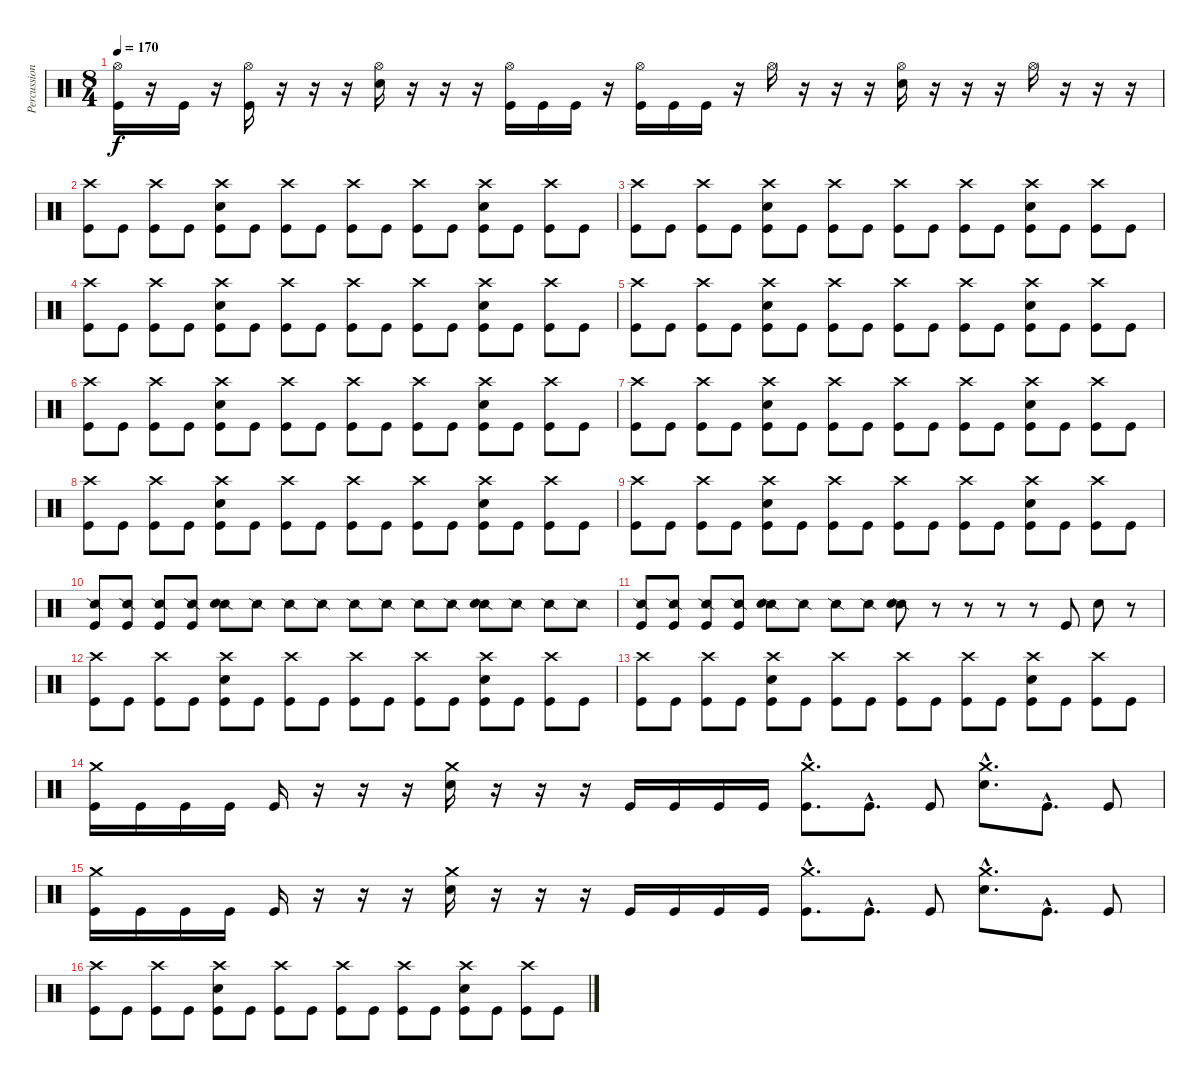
\track ("Percussion" "Percussion") {instrument percussion}
\staff {score}
\articulation defaults
\ts (8 4)
\tempo 170
\clef neutral
\ks c
("Hi-Hat (open)" "Kick (hit)").16{dy f} r.16 "Kick (hit)".16 r.16 ("Hi-Hat (open)" "Kick (hit)").16 r.16 r.16 r.16 ("Hi-Hat (open)" "Snare (hit) 2").16 r.16 r.16 r.16 ("Hi-Hat (open)" "Kick (hit)").16 "Kick (hit)".16 "Kick (hit)".16 r.16 ("Hi-Hat (open)" "Kick (hit)").16 "Kick (hit)".16 "Kick (hit)".16 r.16 "Hi-Hat (open)".16 r.16 r.16 r.16 ("Hi-Hat (open)" "Snare (hit) 2").16 r.16 r.16 r.16 "Hi-Hat (open)".16 r.16 r.16 r.16 |
("Crash high (hit)" "Kick (hit)").8 "Kick (hit)".8 ("Crash high (hit)" "Kick (hit)").8 "Kick (hit)".8 ("Crash high (hit)" "Snare (hit) 2" "Kick (hit)").8 "Kick (hit)".8 ("Crash high (hit)" "Kick (hit)").8 "Kick (hit)".8 ("Crash high (hit)" "Kick (hit)").8 "Kick (hit)".8 ("Crash high (hit)" "Kick (hit)").8 "Kick (hit)".8 ("Crash high (hit)" "Snare (hit) 2" "Kick (hit)").8 "Kick (hit)".8 ("Crash high (hit)" "Kick (hit)").8 "Kick (hit)".8 |
("Crash high (hit)" "Kick (hit)").8 "Kick (hit)".8 ("Crash high (hit)" "Kick (hit)").8 "Kick (hit)".8 ("Crash high (hit)" "Snare (hit) 2" "Kick (hit)").8 "Kick (hit)".8 ("Crash high (hit)" "Kick (hit)").8 "Kick (hit)".8 ("Crash high (hit)" "Kick (hit)").8 "Kick (hit)".8 ("Crash high (hit)" "Kick (hit)").8 "Kick (hit)".8 ("Crash high (hit)" "Snare (hit) 2" "Kick (hit)").8 "Kick (hit)".8 ("Crash high (hit)" "Kick (hit)").8 "Kick (hit)".8 |
("Crash high (hit)" "Kick (hit)").8 "Kick (hit)".8 ("Crash high (hit)" "Kick (hit)").8 "Kick (hit)".8 ("Crash high (hit)" "Snare (hit) 2" "Kick (hit)").8 "Kick (hit)".8 ("Crash high (hit)" "Kick (hit)").8 "Kick (hit)".8 ("Crash high (hit)" "Kick (hit)").8 "Kick (hit)".8 ("Crash high (hit)" "Kick (hit)").8 "Kick (hit)".8 ("Crash high (hit)" "Snare (hit) 2" "Kick (hit)").8 "Kick (hit)".8 ("Crash high (hit)" "Kick (hit)").8 "Kick (hit)".8 |
("Crash high (hit)" "Kick (hit)").8 "Kick (hit)".8 ("Crash high (hit)" "Kick (hit)").8 "Kick (hit)".8 ("Crash high (hit)" "Snare (hit) 2" "Kick (hit)").8 "Kick (hit)".8 ("Crash high (hit)" "Kick (hit)").8 "Kick (hit)".8 ("Crash high (hit)" "Kick (hit)").8 "Kick (hit)".8 ("Crash high (hit)" "Kick (hit)").8 "Kick (hit)".8 ("Crash high (hit)" "Snare (hit) 2" "Kick (hit)").8 "Kick (hit)".8 ("Crash high (hit)" "Kick (hit)").8 "Kick (hit)".8 |
("Crash high (hit)" "Kick (hit)").8 "Kick (hit)".8 ("Crash high (hit)" "Kick (hit)").8 "Kick (hit)".8 ("Crash high (hit)" "Snare (hit) 2" "Kick (hit)").8 "Kick (hit)".8 ("Crash high (hit)" "Kick (hit)").8 "Kick (hit)".8 ("Crash high (hit)" "Kick (hit)").8 "Kick (hit)".8 ("Crash high (hit)" "Kick (hit)").8 "Kick (hit)".8 ("Crash high (hit)" "Snare (hit) 2" "Kick (hit)").8 "Kick (hit)".8 ("Crash high (hit)" "Kick (hit)").8 "Kick (hit)".8 |
("Crash high (hit)" "Kick (hit)").8 "Kick (hit)".8 ("Crash high (hit)" "Kick (hit)").8 "Kick (hit)".8 ("Crash high (hit)" "Snare (hit) 2" "Kick (hit)").8 "Kick (hit)".8 ("Crash high (hit)" "Kick (hit)").8 "Kick (hit)".8 ("Crash high (hit)" "Kick (hit)").8 "Kick (hit)".8 ("Crash high (hit)" "Kick (hit)").8 "Kick (hit)".8 ("Crash high (hit)" "Snare (hit) 2" "Kick (hit)").8 "Kick (hit)".8 ("Crash high (hit)" "Kick (hit)").8 "Kick (hit)".8 |
("Crash high (hit)" "Kick (hit)").8 "Kick (hit)".8 ("Crash high (hit)" "Kick (hit)").8 "Kick (hit)".8 ("Crash high (hit)" "Snare (hit) 2" "Kick (hit)").8 "Kick (hit)".8 ("Crash high (hit)" "Kick (hit)").8 "Kick (hit)".8 ("Crash high (hit)" "Kick (hit)").8 "Kick (hit)".8 ("Crash high (hit)" "Kick (hit)").8 "Kick (hit)".8 ("Crash high (hit)" "Snare (hit) 2" "Kick (hit)").8 "Kick (hit)".8 ("Crash high (hit)" "Kick (hit)").8 "Kick (hit)".8 |
("Crash high (hit)" "Kick (hit)").8 "Kick (hit)".8 ("Crash high (hit)" "Kick (hit)").8 "Kick (hit)".8 ("Crash high (hit)" "Snare (hit) 2" "Kick (hit)").8 "Kick (hit)".8 ("Crash high (hit)" "Kick (hit)").8 "Kick (hit)".8 ("Crash high (hit)" "Kick (hit)").8 "Kick (hit)".8 ("Crash high (hit)" "Kick (hit)").8 "Kick (hit)".8 ("Crash high (hit)" "Snare (hit) 2" "Kick (hit)").8 "Kick (hit)".8 ("Crash high (hit)" "Kick (hit)").8 "Kick (hit)".8 |
("Snare (side stick) 2" "Kick (hit)").8 ("Snare (side stick) 2" "Kick (hit)").8 ("Snare (side stick) 2" "Kick (hit)").8 ("Snare (side stick) 2" "Kick (hit)").8 ("Snare (side stick) 2" "Snare (hit) 2").8 "Snare (side stick) 2".8 "Snare (side stick) 2".8 "Snare (side stick) 2".8 "Snare (side stick) 2".8 "Snare (side stick) 2".8 "Snare (side stick) 2".8 "Snare (side stick) 2".8 ("Snare (side stick) 2" "Snare (hit) 2").8 "Snare (side stick) 2".8 "Snare (side stick) 2".8 "Snare (side stick) 2".8 |
("Snare (side stick) 2" "Kick (hit)").8 ("Snare (side stick) 2" "Kick (hit)").8 ("Snare (side stick) 2" "Kick (hit)").8 ("Snare (side stick) 2" "Kick (hit)").8 ("Snare (side stick) 2" "Snare (hit) 2").8 "Snare (side stick) 2".8 "Snare (side stick) 2".8 "Snare (side stick) 2".8 ("Snare (side stick) 2" "Snare (hit) 2").8 r.8 r.8 r.8 r.8 "Kick (hit)".8 "Snare (hit) 2".8 r.8 |
("Crash high (hit)" "Kick (hit)").8 "Kick (hit)".8 ("Crash high (hit)" "Kick (hit)").8 "Kick (hit)".8 ("Crash high (hit)" "Snare (hit) 2" "Kick (hit)").8 "Kick (hit)".8 ("Crash high (hit)" "Kick (hit)").8 "Kick (hit)".8 ("Crash high (hit)" "Kick (hit)").8 "Kick (hit)".8 ("Crash high (hit)" "Kick (hit)").8 "Kick (hit)".8 ("Crash high (hit)" "Snare (hit) 2" "Kick (hit)").8 "Kick (hit)".8 ("Crash high (hit)" "Kick (hit)").8 "Kick (hit)".8 |
("Crash high (hit)" "Kick (hit)").8 "Kick (hit)".8 ("Crash high (hit)" "Kick (hit)").8 "Kick (hit)".8 ("Crash high (hit)" "Snare (hit) 2" "Kick (hit)").8 "Kick (hit)".8 ("Crash high (hit)" "Kick (hit)").8 "Kick (hit)".8 ("Crash high (hit)" "Kick (hit)").8 "Kick (hit)".8 ("Crash high (hit)" "Kick (hit)").8 "Kick (hit)".8 ("Crash high (hit)" "Snare (hit) 2" "Kick (hit)").8 "Kick (hit)".8 ("Crash high (hit)" "Kick (hit)").8 "Kick (hit)".8 |
("Crash medium (hit)" "Kick (hit)").16 "Kick (hit)".16 "Kick (hit)".16 "Kick (hit)".16 "Kick (hit)".16 r.16 r.16 r.16 ("Crash medium (hit)" "Snare (hit) 2").16 r.16 r.16 r.16 "Kick (hit)".16 "Kick (hit)".16 "Kick (hit)".16 "Kick (hit)".16 ("Crash medium (hit)"{hac} "Kick (hit)"{hac}).8{d} "Kick (hit)"{hac}.8{d} "Kick (hit)".8 ("Crash medium (hit)"{hac} "Snare (hit) 2"{hac}).8{d} "Kick (hit)"{hac}.8{d} "Kick (hit)".8 |
("Crash medium (hit)" "Kick (hit)").16 "Kick (hit)".16 "Kick (hit)".16 "Kick (hit)".16 "Kick (hit)".16 r.16 r.16 r.16 ("Crash medium (hit)" "Snare (hit) 2").16 r.16 r.16 r.16 "Kick (hit)".16 "Kick (hit)".16 "Kick (hit)".16 "Kick (hit)".16 ("Crash medium (hit)"{hac} "Kick (hit)"{hac}).8{d} "Kick (hit)"{hac}.8{d} "Kick (hit)".8 ("Crash medium (hit)"{hac} "Snare (hit) 2"{hac}).8{d} "Kick (hit)"{hac}.8{d} "Kick (hit)".8 |
("Crash high (hit)" "Kick (hit)").8 "Kick (hit)".8 ("Crash high (hit)" "Kick (hit)").8 "Kick (hit)".8 ("Crash high (hit)" "Snare (hit) 2" "Kick (hit)").8 "Kick (hit)".8 ("Crash high (hit)" "Kick (hit)").8 "Kick (hit)".8 ("Crash high (hit)" "Kick (hit)").8 "Kick (hit)".8 ("Crash high (hit)" "Kick (hit)").8 "Kick (hit)".8 ("Crash high (hit)" "Snare (hit) 2" "Kick (hit)").8 "Kick (hit)".8 ("Crash high (hit)" "Kick (hit)").8 "Kick (hit)".8
